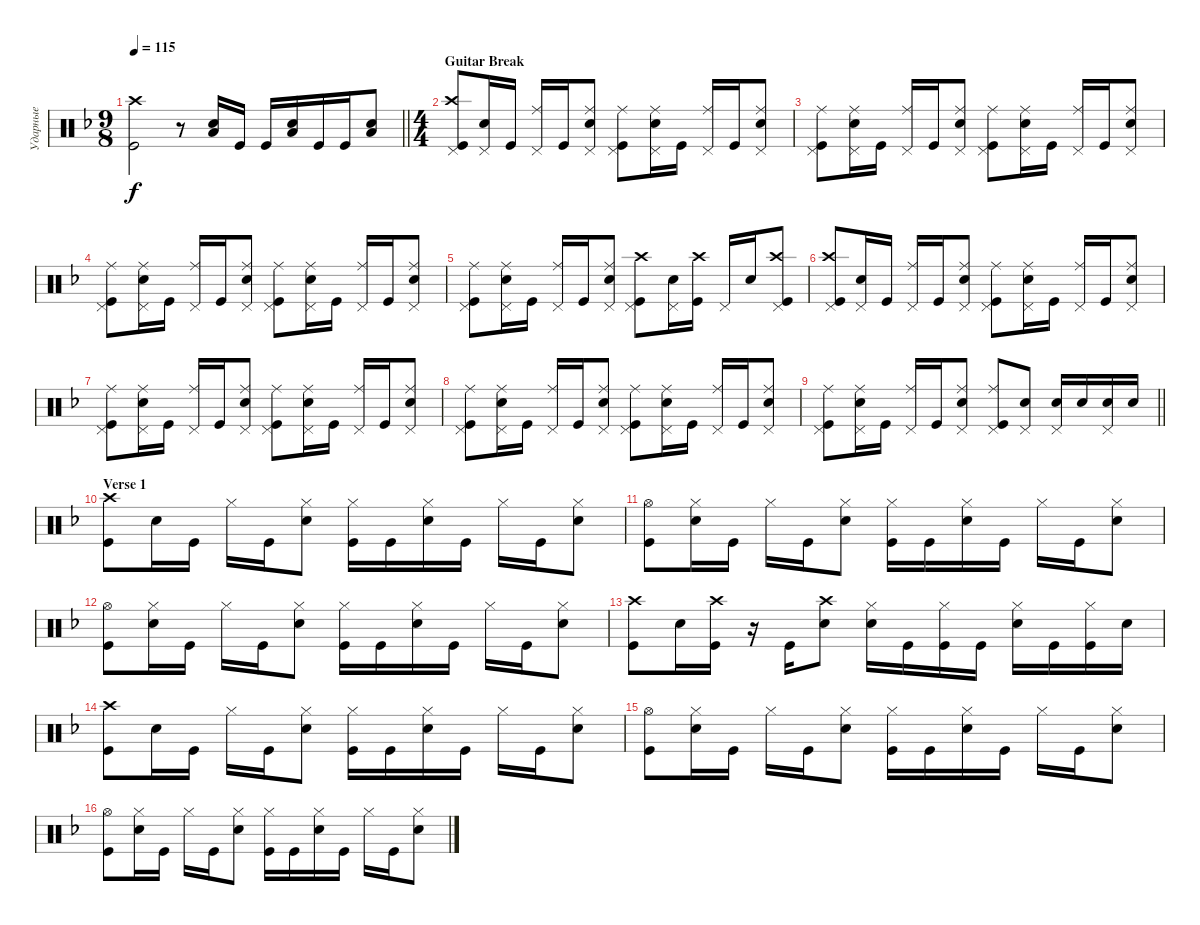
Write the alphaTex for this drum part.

\track ("Ударные" "Ударные") {instrument percussion}
\staff {score}
\articulation defaults
\ts (9 8)
\tempo 115
\clef neutral
\barLineRight lightlight
\ks dminor
("Kick (hit)" "Crash high (hit)").2{dy f} r.8 ("Snare (hit) 2" "Low Tom (hit)").16{bd 240} "Kick (hit)".16 "Kick (hit)".16 ("Snare (hit) 2" "Low Tom (hit)").16{bd 240} "Kick (hit)".16 "Kick (hit)".16 ("Low Tom (hit)" "Snare (hit) 2").8{bd 240} |
\ts (4 4)
\section ("" "Guitar Break")
("Kick (hit)" "Pedal Hi-Hat (hit)" "Crash high (hit)").8 ("Snare (hit) 2" "Pedal Hi-Hat (hit)").16 "Kick (hit)".16 ("Ride (middle)" "Pedal Hi-Hat (hit)").16 "Kick (hit)".16 ("Snare (hit) 2" "Ride (middle)" "Pedal Hi-Hat (hit)").8 ("Kick (hit)" "Pedal Hi-Hat (hit)" "Ride (middle)").8 ("Snare (hit) 2" "Ride (middle)" "Pedal Hi-Hat (hit)").16 "Kick (hit)".16 ("Ride (middle)" "Pedal Hi-Hat (hit)").16 "Kick (hit)".16 ("Snare (hit) 2" "Ride (middle)" "Pedal Hi-Hat (hit)").8 |
("Kick (hit)" "Pedal Hi-Hat (hit)" "Ride (middle)").8 ("Snare (hit) 2" "Ride (middle)" "Pedal Hi-Hat (hit)").16 "Kick (hit)".16 ("Ride (middle)" "Pedal Hi-Hat (hit)").16 "Kick (hit)".16 ("Snare (hit) 2" "Ride (middle)" "Pedal Hi-Hat (hit)").8 ("Kick (hit)" "Pedal Hi-Hat (hit)" "Ride (middle)").8 ("Snare (hit) 2" "Ride (middle)" "Pedal Hi-Hat (hit)").16 "Kick (hit)".16 ("Ride (middle)" "Pedal Hi-Hat (hit)").16 "Kick (hit)".16 ("Snare (hit) 2" "Ride (middle)" "Pedal Hi-Hat (hit)").8 |
("Kick (hit)" "Pedal Hi-Hat (hit)" "Ride (middle)").8 ("Snare (hit) 2" "Ride (middle)" "Pedal Hi-Hat (hit)").16 "Kick (hit)".16 ("Ride (middle)" "Pedal Hi-Hat (hit)").16 "Kick (hit)".16 ("Snare (hit) 2" "Ride (middle)" "Pedal Hi-Hat (hit)").8 ("Kick (hit)" "Pedal Hi-Hat (hit)" "Ride (middle)").8 ("Snare (hit) 2" "Ride (middle)" "Pedal Hi-Hat (hit)").16 "Kick (hit)".16 ("Ride (middle)" "Pedal Hi-Hat (hit)").16 "Kick (hit)".16 ("Snare (hit) 2" "Ride (middle)" "Pedal Hi-Hat (hit)").8 |
("Kick (hit)" "Pedal Hi-Hat (hit)" "Ride (middle)").8 ("Snare (hit) 2" "Ride (middle)" "Pedal Hi-Hat (hit)").16 "Kick (hit)".16 ("Ride (middle)" "Pedal Hi-Hat (hit)").16 "Kick (hit)".16 ("Snare (hit) 2" "Ride (middle)" "Pedal Hi-Hat (hit)").8 ("Kick (hit)" "Pedal Hi-Hat (hit)" "Crash high (hit)").8 ("Snare (hit) 2" "Pedal Hi-Hat (hit)").16 ("Kick (hit)" "Crash high (hit)").16 "Pedal Hi-Hat (hit)".16 "Snare (hit) 2".16 ("Crash high (hit)" "Pedal Hi-Hat (hit)" "Kick (hit)").8 |
("Kick (hit)" "Pedal Hi-Hat (hit)" "Crash high (hit)").8 ("Snare (hit) 2" "Pedal Hi-Hat (hit)").16 "Kick (hit)".16 ("Ride (middle)" "Pedal Hi-Hat (hit)").16 "Kick (hit)".16 ("Snare (hit) 2" "Ride (middle)" "Pedal Hi-Hat (hit)").8 ("Kick (hit)" "Pedal Hi-Hat (hit)" "Ride (middle)").8 ("Snare (hit) 2" "Ride (middle)" "Pedal Hi-Hat (hit)").16 "Kick (hit)".16 ("Ride (middle)" "Pedal Hi-Hat (hit)").16 "Kick (hit)".16 ("Snare (hit) 2" "Ride (middle)" "Pedal Hi-Hat (hit)").8 |
("Kick (hit)" "Pedal Hi-Hat (hit)" "Ride (middle)").8 ("Snare (hit) 2" "Ride (middle)" "Pedal Hi-Hat (hit)").16 "Kick (hit)".16 ("Ride (middle)" "Pedal Hi-Hat (hit)").16 "Kick (hit)".16 ("Snare (hit) 2" "Ride (middle)" "Pedal Hi-Hat (hit)").8 ("Kick (hit)" "Pedal Hi-Hat (hit)" "Ride (middle)").8 ("Snare (hit) 2" "Ride (middle)" "Pedal Hi-Hat (hit)").16 "Kick (hit)".16 ("Ride (middle)" "Pedal Hi-Hat (hit)").16 "Kick (hit)".16 ("Snare (hit) 2" "Ride (middle)" "Pedal Hi-Hat (hit)").8 |
("Kick (hit)" "Pedal Hi-Hat (hit)" "Ride (middle)").8 ("Snare (hit) 2" "Ride (middle)" "Pedal Hi-Hat (hit)").16 "Kick (hit)".16 ("Ride (middle)" "Pedal Hi-Hat (hit)").16 "Kick (hit)".16 ("Snare (hit) 2" "Ride (middle)" "Pedal Hi-Hat (hit)").8 ("Kick (hit)" "Pedal Hi-Hat (hit)" "Ride (middle)").8 ("Snare (hit) 2" "Ride (middle)" "Pedal Hi-Hat (hit)").16 "Kick (hit)".16 ("Ride (middle)" "Pedal Hi-Hat (hit)").16 "Kick (hit)".16 ("Snare (hit) 2" "Ride (middle)" "Pedal Hi-Hat (hit)").8 |
\barLineRight lightlight
("Kick (hit)" "Pedal Hi-Hat (hit)" "Ride (middle)").8 ("Snare (hit) 2" "Ride (middle)" "Pedal Hi-Hat (hit)").16 "Kick (hit)".16 ("Ride (middle)" "Pedal Hi-Hat (hit)").16 "Kick (hit)".16 ("Snare (hit) 2" "Ride (middle)" "Pedal Hi-Hat (hit)").8 ("Kick (hit)" "Pedal Hi-Hat (hit)" "Ride (middle)").8 ("Snare (hit) 2" "Pedal Hi-Hat (hit)").8 ("Snare (hit) 2" "Pedal Hi-Hat (hit)").16 "Snare (hit) 2".16 ("Snare (hit) 2" "Pedal Hi-Hat (hit)").16 "Snare (hit) 2".16 |
\section ("" "Verse 1")
("Kick (hit)" "Crash high (hit)").8 "Snare (hit) 2".16 "Kick (hit)".16 "Hi-Hat (closed)".16 "Kick (hit)".16 ("Snare (hit) 2" "Hi-Hat (closed)").8 ("Kick (hit)" "Hi-Hat (closed)").16 "Kick (hit)".16 ("Snare (hit) 2" "Hi-Hat (closed)").16 "Kick (hit)".16 "Hi-Hat (closed)".16 "Kick (hit)".16 ("Snare (hit) 2" "Hi-Hat (closed)").8 |
("Kick (hit)" "Hi-Hat (open)").8 ("Snare (hit) 2" "Hi-Hat (closed)").16 "Kick (hit)".16 "Hi-Hat (closed)".16 "Kick (hit)".16 ("Snare (hit) 2" "Hi-Hat (closed)").8 ("Kick (hit)" "Hi-Hat (closed)").16 "Kick (hit)".16 ("Snare (hit) 2" "Hi-Hat (closed)").16 "Kick (hit)".16 "Hi-Hat (closed)".16 "Kick (hit)".16 ("Snare (hit) 2" "Hi-Hat (closed)").8 |
("Kick (hit)" "Hi-Hat (open)").8 ("Snare (hit) 2" "Hi-Hat (closed)").16 "Kick (hit)".16 "Hi-Hat (closed)".16 "Kick (hit)".16 ("Snare (hit) 2" "Hi-Hat (closed)").8 ("Kick (hit)" "Hi-Hat (closed)").16 "Kick (hit)".16 ("Snare (hit) 2" "Hi-Hat (closed)").16 "Kick (hit)".16 "Hi-Hat (closed)".16 "Kick (hit)".16 ("Snare (hit) 2" "Hi-Hat (closed)").8 |
("Kick (hit)" "Crash high (hit)").8 "Snare (hit) 2".16 ("Kick (hit)" "Crash high (hit)").16 r.16 "Kick (hit)".16 ("Snare (hit) 2" "Crash high (hit)").8 ("Snare (hit) 2" "Hi-Hat (closed)").16 "Kick (hit)".16 ("Kick (hit)" "Hi-Hat (closed)").16 "Kick (hit)".16 ("Snare (hit) 2" "Hi-Hat (closed)").16 "Kick (hit)".16 ("Kick (hit)" "Hi-Hat (closed)").16 "Snare (hit) 2".16 |
("Kick (hit)" "Crash high (hit)").8 "Snare (hit) 2".16 "Kick (hit)".16 "Hi-Hat (closed)".16 "Kick (hit)".16 ("Snare (hit) 2" "Hi-Hat (closed)").8 ("Kick (hit)" "Hi-Hat (closed)").16 "Kick (hit)".16 ("Snare (hit) 2" "Hi-Hat (closed)").16 "Kick (hit)".16 "Hi-Hat (closed)".16 "Kick (hit)".16 ("Snare (hit) 2" "Hi-Hat (closed)").8 |
("Kick (hit)" "Hi-Hat (open)").8 ("Snare (hit) 2" "Hi-Hat (closed)").16 "Kick (hit)".16 "Hi-Hat (closed)".16 "Kick (hit)".16 ("Snare (hit) 2" "Hi-Hat (closed)").8 ("Kick (hit)" "Hi-Hat (closed)").16 "Kick (hit)".16 ("Snare (hit) 2" "Hi-Hat (closed)").16 "Kick (hit)".16 "Hi-Hat (closed)".16 "Kick (hit)".16 ("Snare (hit) 2" "Hi-Hat (closed)").8 |
("Kick (hit)" "Hi-Hat (open)").8 ("Snare (hit) 2" "Hi-Hat (closed)").16 "Kick (hit)".16 "Hi-Hat (closed)".16 "Kick (hit)".16 ("Snare (hit) 2" "Hi-Hat (closed)").8 ("Kick (hit)" "Hi-Hat (closed)").16 "Kick (hit)".16 ("Snare (hit) 2" "Hi-Hat (closed)").16 "Kick (hit)".16 "Hi-Hat (closed)".16 "Kick (hit)".16 ("Snare (hit) 2" "Hi-Hat (closed)").8
